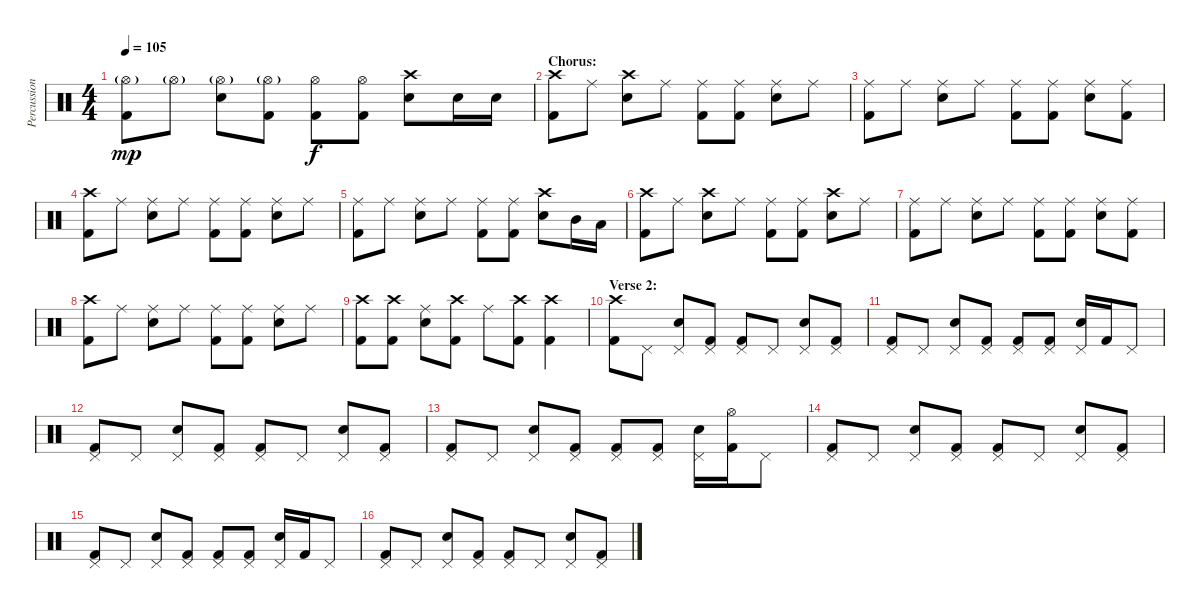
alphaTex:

\track ("Percussion" "Percussion") {instrument percussion}
\staff {score}
\articulation defaults
\ts (4 4)
\tempo 105
\clef neutral
\ks c
("Hi-Hat (open)"{g} "Kick (hit) 2").8{dy mp} "Hi-Hat (open)"{g}.8 ("Hi-Hat (open)"{g} "Electric Snare (hit)").8 ("Hi-Hat (open)"{g} "Kick (hit) 2").8 ("Hi-Hat (open)" "Kick (hit) 2").8{dy f} ("Hi-Hat (open)" "Kick (hit) 2").8 ("Crash high (hit)" "Electric Snare (hit)").8 "Electric Snare (hit)".16 "Electric Snare (hit)".16 |
\section ("" "Chorus:")
("Crash high (hit)" "Kick (hit) 2").8 "Ride (middle)".8 ("Crash high (hit)" "Electric Snare (hit)").8 "Ride (middle)".8 ("Ride (middle)" "Kick (hit) 2").8 ("Ride (middle)" "Kick (hit) 2").8 ("Ride (middle)" "Electric Snare (hit)").8 "Ride (middle)".8 |
("Ride (middle)" "Kick (hit) 2").8 "Ride (middle)".8 ("Ride (middle)" "Electric Snare (hit)").8 "Ride (middle)".8 ("Ride (middle)" "Kick (hit) 2").8 ("Ride (middle)" "Kick (hit) 2").8 ("Ride (middle)" "Electric Snare (hit)").8 ("Ride (middle)" "Kick (hit) 2").8 |
("Crash high (hit)" "Kick (hit) 2").8 "Ride (middle)".8 ("Ride (middle)" "Electric Snare (hit)").8 "Ride (middle)".8 ("Ride (middle)" "Kick (hit) 2").8 ("Ride (middle)" "Kick (hit) 2").8 ("Ride (middle)" "Electric Snare (hit)").8 "Ride (middle)".8 |
("Ride (middle)" "Kick (hit) 2").8 "Ride (middle)".8 ("Ride (middle)" "Electric Snare (hit)").8 "Ride (middle)".8 ("Ride (middle)" "Kick (hit) 2").8 ("Ride (middle)" "Kick (hit) 2").8 ("Crash high (hit)" "Electric Snare (hit)").8 "Mid Tom (hit)".16 "Low Tom (hit)".16 |
("Crash high (hit)" "Kick (hit) 2").8 "Ride (middle)".8 ("Crash high (hit)" "Electric Snare (hit)").8 "Ride (middle)".8 ("Ride (middle)" "Kick (hit) 2").8 ("Ride (middle)" "Kick (hit) 2").8 ("Crash high (hit)" "Electric Snare (hit)").8 "Ride (middle)".8 |
("Ride (middle)" "Kick (hit) 2").8 "Ride (middle)".8 ("Ride (middle)" "Electric Snare (hit)").8 "Ride (middle)".8 ("Ride (middle)" "Kick (hit) 2").8 ("Ride (middle)" "Kick (hit) 2").8 ("Ride (middle)" "Electric Snare (hit)").8 ("Ride (middle)" "Kick (hit) 2").8 |
("Crash high (hit)" "Kick (hit) 2").8 "Ride (middle)".8 ("Ride (middle)" "Electric Snare (hit)").8 "Ride (middle)".8 ("Ride (middle)" "Kick (hit) 2").8 ("Ride (middle)" "Kick (hit) 2").8 ("Ride (middle)" "Electric Snare (hit)").8 "Ride (middle)".8 |
("Crash high (hit)" "Kick (hit) 2").8 ("Crash high (hit)" "Kick (hit) 2").8 ("Ride (middle)" "Electric Snare (hit)").8 ("Crash high (hit)" "Kick (hit) 2").8 "Ride (middle)".8 ("Crash high (hit)" "Kick (hit) 2").8 ("Crash high (hit)" "Kick (hit) 2").4 |
\section ("" "Verse 2:")
("Crash high (hit)" "Kick (hit) 2").8 "Pedal Hi-Hat (hit)".8 ("Pedal Hi-Hat (hit)" "Electric Snare (hit)").8 ("Pedal Hi-Hat (hit)" "Kick (hit) 2").8 ("Pedal Hi-Hat (hit)" "Kick (hit) 2").8 "Pedal Hi-Hat (hit)".8 ("Pedal Hi-Hat (hit)" "Electric Snare (hit)").8 ("Pedal Hi-Hat (hit)" "Kick (hit) 2").8 |
("Pedal Hi-Hat (hit)" "Kick (hit) 2").8 "Pedal Hi-Hat (hit)".8 ("Pedal Hi-Hat (hit)" "Electric Snare (hit)").8 ("Pedal Hi-Hat (hit)" "Kick (hit) 2").8 ("Pedal Hi-Hat (hit)" "Kick (hit) 2").8 ("Pedal Hi-Hat (hit)" "Kick (hit) 2").8 ("Pedal Hi-Hat (hit)" "Electric Snare (hit)").16 "Kick (hit) 2".16 "Pedal Hi-Hat (hit)".8 |
("Pedal Hi-Hat (hit)" "Kick (hit) 2").8 "Pedal Hi-Hat (hit)".8 ("Pedal Hi-Hat (hit)" "Electric Snare (hit)").8 ("Pedal Hi-Hat (hit)" "Kick (hit) 2").8 ("Pedal Hi-Hat (hit)" "Kick (hit) 2").8 "Pedal Hi-Hat (hit)".8 ("Pedal Hi-Hat (hit)" "Electric Snare (hit)").8 ("Pedal Hi-Hat (hit)" "Kick (hit) 2").8 |
("Pedal Hi-Hat (hit)" "Kick (hit) 2").8 "Pedal Hi-Hat (hit)".8 ("Pedal Hi-Hat (hit)" "Electric Snare (hit)").8 ("Pedal Hi-Hat (hit)" "Kick (hit) 2").8 ("Pedal Hi-Hat (hit)" "Kick (hit) 2").8 ("Pedal Hi-Hat (hit)" "Kick (hit) 2").8 ("Pedal Hi-Hat (hit)" "Electric Snare (hit)").16 ("Hi-Hat (open)" "Kick (hit) 2").16 "Pedal Hi-Hat (hit)".8 |
("Pedal Hi-Hat (hit)" "Kick (hit) 2").8 "Pedal Hi-Hat (hit)".8 ("Pedal Hi-Hat (hit)" "Electric Snare (hit)").8 ("Pedal Hi-Hat (hit)" "Kick (hit) 2").8 ("Pedal Hi-Hat (hit)" "Kick (hit) 2").8 "Pedal Hi-Hat (hit)".8 ("Pedal Hi-Hat (hit)" "Electric Snare (hit)").8 ("Pedal Hi-Hat (hit)" "Kick (hit) 2").8 |
("Pedal Hi-Hat (hit)" "Kick (hit) 2").8 "Pedal Hi-Hat (hit)".8 ("Pedal Hi-Hat (hit)" "Electric Snare (hit)").8 ("Pedal Hi-Hat (hit)" "Kick (hit) 2").8 ("Pedal Hi-Hat (hit)" "Kick (hit) 2").8 ("Pedal Hi-Hat (hit)" "Kick (hit) 2").8 ("Pedal Hi-Hat (hit)" "Electric Snare (hit)").16 "Kick (hit) 2".16 "Pedal Hi-Hat (hit)".8 |
("Pedal Hi-Hat (hit)" "Kick (hit) 2").8 "Pedal Hi-Hat (hit)".8 ("Pedal Hi-Hat (hit)" "Electric Snare (hit)").8 ("Pedal Hi-Hat (hit)" "Kick (hit) 2").8 ("Pedal Hi-Hat (hit)" "Kick (hit) 2").8 "Pedal Hi-Hat (hit)".8 ("Pedal Hi-Hat (hit)" "Electric Snare (hit)").8 ("Pedal Hi-Hat (hit)" "Kick (hit) 2").8
